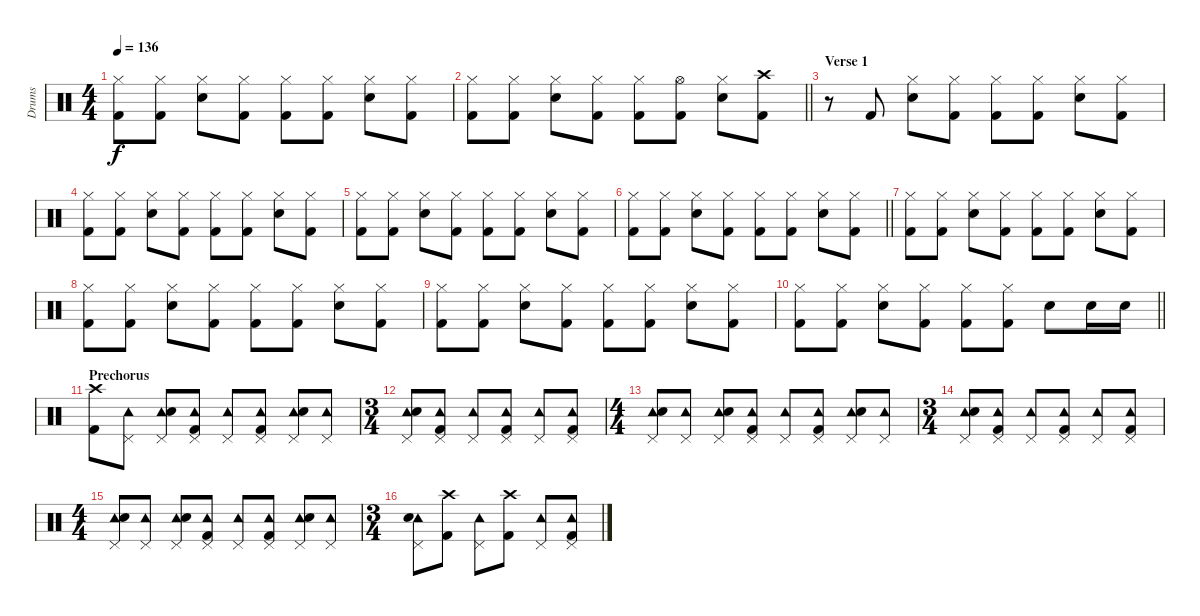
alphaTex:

\track ("Drums" "Drums") {instrument percussion}
\staff {score}
\articulation defaults
\ts (4 4)
\tempo 136
\clef neutral
\ks c
("Hi-Hat (closed)" "Kick (hit) 2").8{dy f} ("Hi-Hat (closed)" "Kick (hit) 2").8 ("Hi-Hat (closed)" "Snare (hit) 2").8 ("Hi-Hat (closed)" "Kick (hit) 2").8 ("Hi-Hat (closed)" "Kick (hit) 2").8 ("Hi-Hat (closed)" "Kick (hit) 2").8 ("Hi-Hat (closed)" "Snare (hit) 2").8 ("Hi-Hat (closed)" "Kick (hit) 2").8 |
\barLineRight lightlight
("Hi-Hat (closed)" "Kick (hit) 2").8 ("Hi-Hat (closed)" "Kick (hit) 2").8 ("Hi-Hat (closed)" "Snare (hit) 2").8 ("Hi-Hat (closed)" "Kick (hit) 2").8 ("Hi-Hat (closed)" "Kick (hit) 2").8 ("Hi-Hat (open)" "Kick (hit) 2").8 ("Hi-Hat (closed)" "Snare (hit) 2").8 ("Crash high (hit)" "Kick (hit) 2").8 |
\section ("" "Verse 1")
r.8 "Kick (hit) 2".8 ("Hi-Hat (closed)" "Snare (hit) 2").8 ("Hi-Hat (closed)" "Kick (hit) 2").8 ("Hi-Hat (closed)" "Kick (hit) 2").8 ("Hi-Hat (closed)" "Kick (hit) 2").8 ("Hi-Hat (closed)" "Snare (hit) 2").8 ("Hi-Hat (closed)" "Kick (hit) 2").8 |
("Hi-Hat (closed)" "Kick (hit) 2").8 ("Hi-Hat (closed)" "Kick (hit) 2").8 ("Hi-Hat (closed)" "Snare (hit) 2").8 ("Hi-Hat (closed)" "Kick (hit) 2").8 ("Hi-Hat (closed)" "Kick (hit) 2").8 ("Hi-Hat (closed)" "Kick (hit) 2").8 ("Hi-Hat (closed)" "Snare (hit) 2").8 ("Hi-Hat (closed)" "Kick (hit) 2").8 |
("Hi-Hat (closed)" "Kick (hit) 2").8 ("Hi-Hat (closed)" "Kick (hit) 2").8 ("Hi-Hat (closed)" "Snare (hit) 2").8 ("Hi-Hat (closed)" "Kick (hit) 2").8 ("Hi-Hat (closed)" "Kick (hit) 2").8 ("Hi-Hat (closed)" "Kick (hit) 2").8 ("Hi-Hat (closed)" "Snare (hit) 2").8 ("Hi-Hat (closed)" "Kick (hit) 2").8 |
\barLineRight lightlight
("Hi-Hat (closed)" "Kick (hit) 2").8 ("Hi-Hat (closed)" "Kick (hit) 2").8 ("Hi-Hat (closed)" "Snare (hit) 2").8 ("Hi-Hat (closed)" "Kick (hit) 2").8 ("Hi-Hat (closed)" "Kick (hit) 2").8 ("Hi-Hat (closed)" "Kick (hit) 2").8 ("Hi-Hat (closed)" "Snare (hit) 2").8 ("Hi-Hat (closed)" "Kick (hit) 2").8 |
("Hi-Hat (closed)" "Kick (hit) 2").8 ("Hi-Hat (closed)" "Kick (hit) 2").8 ("Hi-Hat (closed)" "Snare (hit) 2").8 ("Hi-Hat (closed)" "Kick (hit) 2").8 ("Hi-Hat (closed)" "Kick (hit) 2").8 ("Hi-Hat (closed)" "Kick (hit) 2").8 ("Hi-Hat (closed)" "Snare (hit) 2").8 ("Hi-Hat (closed)" "Kick (hit) 2").8 |
("Hi-Hat (closed)" "Kick (hit) 2").8 ("Hi-Hat (closed)" "Kick (hit) 2").8 ("Hi-Hat (closed)" "Snare (hit) 2").8 ("Hi-Hat (closed)" "Kick (hit) 2").8 ("Hi-Hat (closed)" "Kick (hit) 2").8 ("Hi-Hat (closed)" "Kick (hit) 2").8 ("Hi-Hat (closed)" "Snare (hit) 2").8 ("Hi-Hat (closed)" "Kick (hit) 2").8 |
("Hi-Hat (closed)" "Kick (hit) 2").8 ("Hi-Hat (closed)" "Kick (hit) 2").8 ("Hi-Hat (closed)" "Snare (hit) 2").8 ("Hi-Hat (closed)" "Kick (hit) 2").8 ("Hi-Hat (closed)" "Kick (hit) 2").8 ("Hi-Hat (closed)" "Kick (hit) 2").8 ("Hi-Hat (closed)" "Snare (hit) 2").8 ("Hi-Hat (closed)" "Kick (hit) 2").8 |
\barLineRight lightlight
("Hi-Hat (closed)" "Kick (hit) 2").8 ("Hi-Hat (closed)" "Kick (hit) 2").8 ("Hi-Hat (closed)" "Snare (hit) 2").8 ("Hi-Hat (closed)" "Kick (hit) 2").8 ("Hi-Hat (closed)" "Kick (hit) 2").8 ("Hi-Hat (closed)" "Kick (hit) 2").8 "Snare (hit) 2".8 "Snare (hit) 2".16 "Snare (hit) 2".16 |
\section ("" "Prechorus")
("Crash high (hit)" "Kick (hit) 2").8 ("Pedal Hi-Hat (hit)" "Tambourine (hit)").8 ("Pedal Hi-Hat (hit)" "Tambourine (hit)" "Snare (hit) 2").8 ("Pedal Hi-Hat (hit)" "Tambourine (hit)" "Kick (hit) 2").8 ("Pedal Hi-Hat (hit)" "Tambourine (hit)").8 ("Pedal Hi-Hat (hit)" "Tambourine (hit)" "Kick (hit) 2").8 ("Pedal Hi-Hat (hit)" "Tambourine (hit)" "Snare (hit) 2").8 ("Pedal Hi-Hat (hit)" "Tambourine (hit)").8 |
\ts (3 4)
("Pedal Hi-Hat (hit)" "Tambourine (hit)" "Snare (hit) 2").8 ("Pedal Hi-Hat (hit)" "Tambourine (hit)" "Kick (hit) 2").8 ("Pedal Hi-Hat (hit)" "Tambourine (hit)").8 ("Pedal Hi-Hat (hit)" "Tambourine (hit)" "Kick (hit) 2").8 ("Pedal Hi-Hat (hit)" "Tambourine (hit)").8 ("Pedal Hi-Hat (hit)" "Tambourine (hit)" "Kick (hit) 2").8 |
\ts (4 4)
("Pedal Hi-Hat (hit)" "Tambourine (hit)" "Snare (hit) 2").8 ("Pedal Hi-Hat (hit)" "Tambourine (hit)").8 ("Pedal Hi-Hat (hit)" "Tambourine (hit)" "Snare (hit) 2").8 ("Pedal Hi-Hat (hit)" "Tambourine (hit)" "Kick (hit) 2").8 ("Pedal Hi-Hat (hit)" "Tambourine (hit)").8 ("Pedal Hi-Hat (hit)" "Tambourine (hit)" "Kick (hit) 2").8 ("Pedal Hi-Hat (hit)" "Tambourine (hit)" "Snare (hit) 2").8 ("Pedal Hi-Hat (hit)" "Tambourine (hit)").8 |
\ts (3 4)
("Pedal Hi-Hat (hit)" "Tambourine (hit)" "Snare (hit) 2").8 ("Pedal Hi-Hat (hit)" "Tambourine (hit)" "Kick (hit) 2").8 ("Pedal Hi-Hat (hit)" "Tambourine (hit)").8 ("Pedal Hi-Hat (hit)" "Tambourine (hit)" "Kick (hit) 2").8 ("Pedal Hi-Hat (hit)" "Tambourine (hit)").8 ("Pedal Hi-Hat (hit)" "Tambourine (hit)" "Kick (hit) 2").8 |
\ts (4 4)
("Pedal Hi-Hat (hit)" "Tambourine (hit)" "Snare (hit) 2").8 ("Pedal Hi-Hat (hit)" "Tambourine (hit)").8 ("Pedal Hi-Hat (hit)" "Tambourine (hit)" "Snare (hit) 2").8 ("Pedal Hi-Hat (hit)" "Tambourine (hit)" "Kick (hit) 2").8 ("Pedal Hi-Hat (hit)" "Tambourine (hit)").8 ("Pedal Hi-Hat (hit)" "Tambourine (hit)" "Kick (hit) 2").8 ("Pedal Hi-Hat (hit)" "Tambourine (hit)" "Snare (hit) 2").8 ("Pedal Hi-Hat (hit)" "Tambourine (hit)").8 |
\ts (3 4)
("Pedal Hi-Hat (hit)" "Tambourine (hit)" "Snare (hit) 2").8 ("Crash high (hit)" "Kick (hit) 2").8 ("Pedal Hi-Hat (hit)" "Tambourine (hit)").8 ("Crash high (hit)" "Kick (hit) 2").8 ("Pedal Hi-Hat (hit)" "Tambourine (hit)").8 ("Pedal Hi-Hat (hit)" "Tambourine (hit)" "Kick (hit) 2").8
